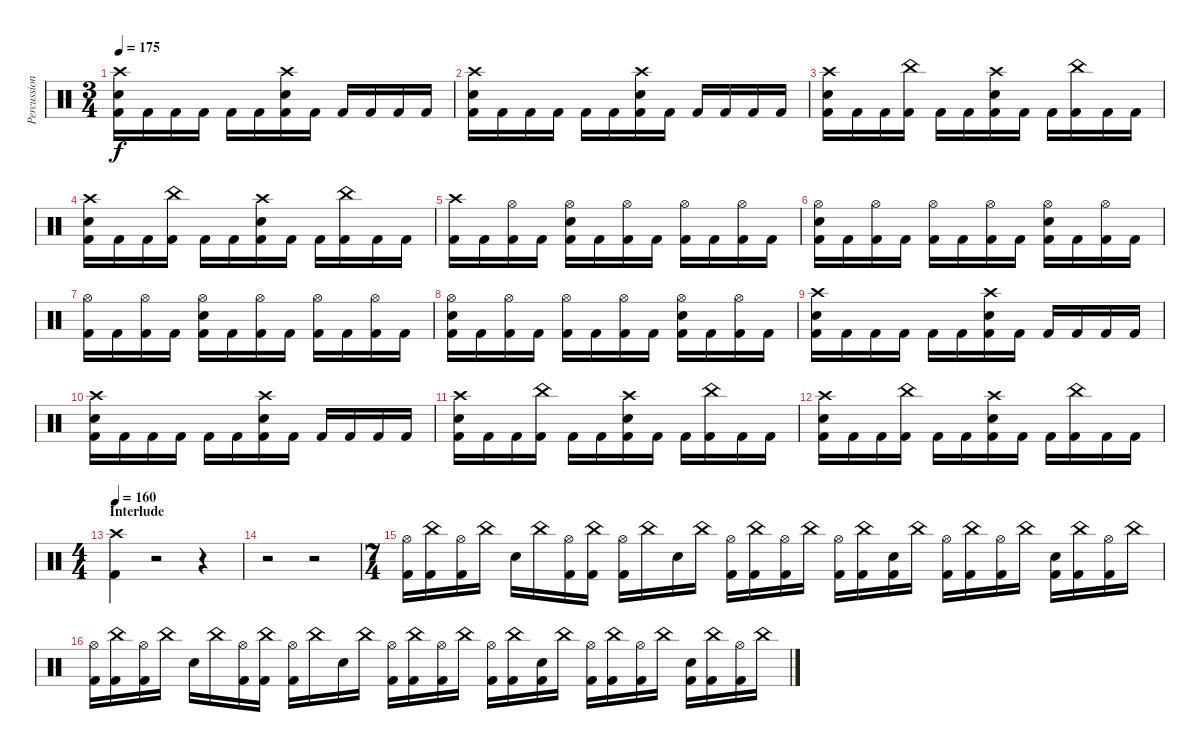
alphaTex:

\track ("Percussion" "Percussion") {instrument percussion}
\staff {score}
\articulation defaults
\ts (3 4)
\tempo 175
\clef neutral
\ks c
("Crash high (hit)" "Electric Snare (hit)" "Kick (hit) 2").16{dy f} "Kick (hit) 2".16 "Kick (hit) 2".16 "Kick (hit) 2".16 "Kick (hit) 2".16 "Kick (hit) 2".16 ("Crash high (hit)" "Electric Snare (hit)" "Kick (hit) 2").16 "Kick (hit) 2".16 "Kick (hit) 2".16 "Kick (hit) 2".16 "Kick (hit) 2".16 "Kick (hit) 2".16 |
("Crash high (hit)" "Electric Snare (hit)" "Kick (hit) 2").16 "Kick (hit) 2".16 "Kick (hit) 2".16 "Kick (hit) 2".16 "Kick (hit) 2".16 "Kick (hit) 2".16 ("Crash high (hit)" "Electric Snare (hit)" "Kick (hit) 2").16 "Kick (hit) 2".16 "Kick (hit) 2".16 "Kick (hit) 2".16 "Kick (hit) 2".16 "Kick (hit) 2".16 |
("Crash high (hit)" "Electric Snare (hit)" "Kick (hit) 2").16 "Kick (hit) 2".16 "Kick (hit) 2".16 ("China (hit)" "Kick (hit) 2").16 "Kick (hit) 2".16 "Kick (hit) 2".16 ("Crash high (hit)" "Electric Snare (hit)" "Kick (hit) 2").16 "Kick (hit) 2".16 "Kick (hit) 2".16 ("China (hit)" "Kick (hit) 2").16 "Kick (hit) 2".16 "Kick (hit) 2".16 |
("Crash high (hit)" "Electric Snare (hit)" "Kick (hit) 2").16 "Kick (hit) 2".16 "Kick (hit) 2".16 ("China (hit)" "Kick (hit) 2").16 "Kick (hit) 2".16 "Kick (hit) 2".16 ("Crash high (hit)" "Electric Snare (hit)" "Kick (hit) 2").16 "Kick (hit) 2".16 "Kick (hit) 2".16 ("China (hit)" "Kick (hit) 2").16 "Kick (hit) 2".16 "Kick (hit) 2".16 |
("Crash high (hit)" "Kick (hit) 2").16 "Kick (hit) 2".16 ("Hi-Hat (open)" "Kick (hit) 2").16 "Kick (hit) 2".16 ("Hi-Hat (open)" "Electric Snare (hit)" "Kick (hit) 2").16 "Kick (hit) 2".16 ("Hi-Hat (open)" "Kick (hit) 2").16 "Kick (hit) 2".16 ("Hi-Hat (open)" "Kick (hit) 2").16 "Kick (hit) 2".16 ("Hi-Hat (open)" "Kick (hit) 2").16 "Kick (hit) 2".16 |
("Hi-Hat (open)" "Electric Snare (hit)" "Kick (hit) 2").16 "Kick (hit) 2".16 ("Hi-Hat (open)" "Kick (hit) 2").16 "Kick (hit) 2".16 ("Hi-Hat (open)" "Kick (hit) 2").16 "Kick (hit) 2".16 ("Hi-Hat (open)" "Kick (hit) 2").16 "Kick (hit) 2".16 ("Hi-Hat (open)" "Electric Snare (hit)" "Kick (hit) 2").16 "Kick (hit) 2".16 ("Hi-Hat (open)" "Kick (hit) 2").16 "Kick (hit) 2".16 |
("Hi-Hat (open)" "Kick (hit) 2").16 "Kick (hit) 2".16 ("Hi-Hat (open)" "Kick (hit) 2").16 "Kick (hit) 2".16 ("Hi-Hat (open)" "Electric Snare (hit)" "Kick (hit) 2").16 "Kick (hit) 2".16 ("Hi-Hat (open)" "Kick (hit) 2").16 "Kick (hit) 2".16 ("Hi-Hat (open)" "Kick (hit) 2").16 "Kick (hit) 2".16 ("Hi-Hat (open)" "Kick (hit) 2").16 "Kick (hit) 2".16 |
("Hi-Hat (open)" "Electric Snare (hit)" "Kick (hit) 2").16 "Kick (hit) 2".16 ("Hi-Hat (open)" "Kick (hit) 2").16 "Kick (hit) 2".16 ("Hi-Hat (open)" "Kick (hit) 2").16 "Kick (hit) 2".16 ("Hi-Hat (open)" "Kick (hit) 2").16 "Kick (hit) 2".16 ("Hi-Hat (open)" "Electric Snare (hit)" "Kick (hit) 2").16 "Kick (hit) 2".16 ("Hi-Hat (open)" "Kick (hit) 2").16 "Kick (hit) 2".16 |
("Crash high (hit)" "Electric Snare (hit)" "Kick (hit) 2").16 "Kick (hit) 2".16 "Kick (hit) 2".16 "Kick (hit) 2".16 "Kick (hit) 2".16 "Kick (hit) 2".16 ("Crash high (hit)" "Electric Snare (hit)" "Kick (hit) 2").16 "Kick (hit) 2".16 "Kick (hit) 2".16 "Kick (hit) 2".16 "Kick (hit) 2".16 "Kick (hit) 2".16 |
("Crash high (hit)" "Electric Snare (hit)" "Kick (hit) 2").16 "Kick (hit) 2".16 "Kick (hit) 2".16 "Kick (hit) 2".16 "Kick (hit) 2".16 "Kick (hit) 2".16 ("Crash high (hit)" "Electric Snare (hit)" "Kick (hit) 2").16 "Kick (hit) 2".16 "Kick (hit) 2".16 "Kick (hit) 2".16 "Kick (hit) 2".16 "Kick (hit) 2".16 |
("Crash high (hit)" "Electric Snare (hit)" "Kick (hit) 2").16 "Kick (hit) 2".16 "Kick (hit) 2".16 ("China (hit)" "Kick (hit) 2").16 "Kick (hit) 2".16 "Kick (hit) 2".16 ("Crash high (hit)" "Electric Snare (hit)" "Kick (hit) 2").16 "Kick (hit) 2".16 "Kick (hit) 2".16 ("China (hit)" "Kick (hit) 2").16 "Kick (hit) 2".16 "Kick (hit) 2".16 |
("Crash high (hit)" "Electric Snare (hit)" "Kick (hit) 2").16 "Kick (hit) 2".16 "Kick (hit) 2".16 ("China (hit)" "Kick (hit) 2").16 "Kick (hit) 2".16 "Kick (hit) 2".16 ("Crash high (hit)" "Electric Snare (hit)" "Kick (hit) 2").16 "Kick (hit) 2".16 "Kick (hit) 2".16 ("China (hit)" "Kick (hit) 2").16 "Kick (hit) 2".16 "Kick (hit) 2".16 |
\ts (4 4)
\section ("" "Interlude")
\tempo 160
("Crash high (hit)" "Kick (hit) 2").4 r.2 r.4 |
r.2 r.2 |
\ts (7 4)
("Hi-Hat (open)" "Kick (hit) 2").16 ("China (hit)" "Kick (hit) 2").16 ("Hi-Hat (open)" "Kick (hit) 2").16 "China (hit)".16 "Electric Snare (hit)".16 "China (hit)".16 ("Hi-Hat (open)" "Kick (hit) 2").16 ("China (hit)" "Kick (hit) 2").16 ("Hi-Hat (open)" "Kick (hit) 2").16 "China (hit)".16 "Electric Snare (hit)".16 "China (hit)".16 ("Hi-Hat (open)" "Kick (hit) 2").16 ("China (hit)" "Kick (hit) 2").16 ("Hi-Hat (open)" "Kick (hit) 2").16 "China (hit)".16 ("Hi-Hat (open)" "Kick (hit) 2").16 ("China (hit)" "Kick (hit) 2").16 ("Electric Snare (hit)" "Kick (hit) 2").16 "China (hit)".16 ("Hi-Hat (open)" "Kick (hit) 2").16 ("China (hit)" "Kick (hit) 2").16 ("Hi-Hat (open)" "Kick (hit) 2").16 "China (hit)".16 ("Electric Snare (hit)" "Kick (hit) 2").16 ("China (hit)" "Kick (hit) 2").16 ("Hi-Hat (open)" "Kick (hit) 2").16 "China (hit)".16 |
("Hi-Hat (open)" "Kick (hit) 2").16 ("China (hit)" "Kick (hit) 2").16 ("Hi-Hat (open)" "Kick (hit) 2").16 "China (hit)".16 "Electric Snare (hit)".16 "China (hit)".16 ("Hi-Hat (open)" "Kick (hit) 2").16 ("China (hit)" "Kick (hit) 2").16 ("Hi-Hat (open)" "Kick (hit) 2").16 "China (hit)".16 "Electric Snare (hit)".16 "China (hit)".16 ("Hi-Hat (open)" "Kick (hit) 2").16 ("China (hit)" "Kick (hit) 2").16 ("Hi-Hat (open)" "Kick (hit) 2").16 "China (hit)".16 ("Hi-Hat (open)" "Kick (hit) 2").16 ("China (hit)" "Kick (hit) 2").16 ("Electric Snare (hit)" "Kick (hit) 2").16 "China (hit)".16 ("Hi-Hat (open)" "Kick (hit) 2").16 ("China (hit)" "Kick (hit) 2").16 ("Hi-Hat (open)" "Kick (hit) 2").16 "China (hit)".16 ("Electric Snare (hit)" "Kick (hit) 2").16 ("China (hit)" "Kick (hit) 2").16 ("Hi-Hat (open)" "Kick (hit) 2").16 "China (hit)".16
